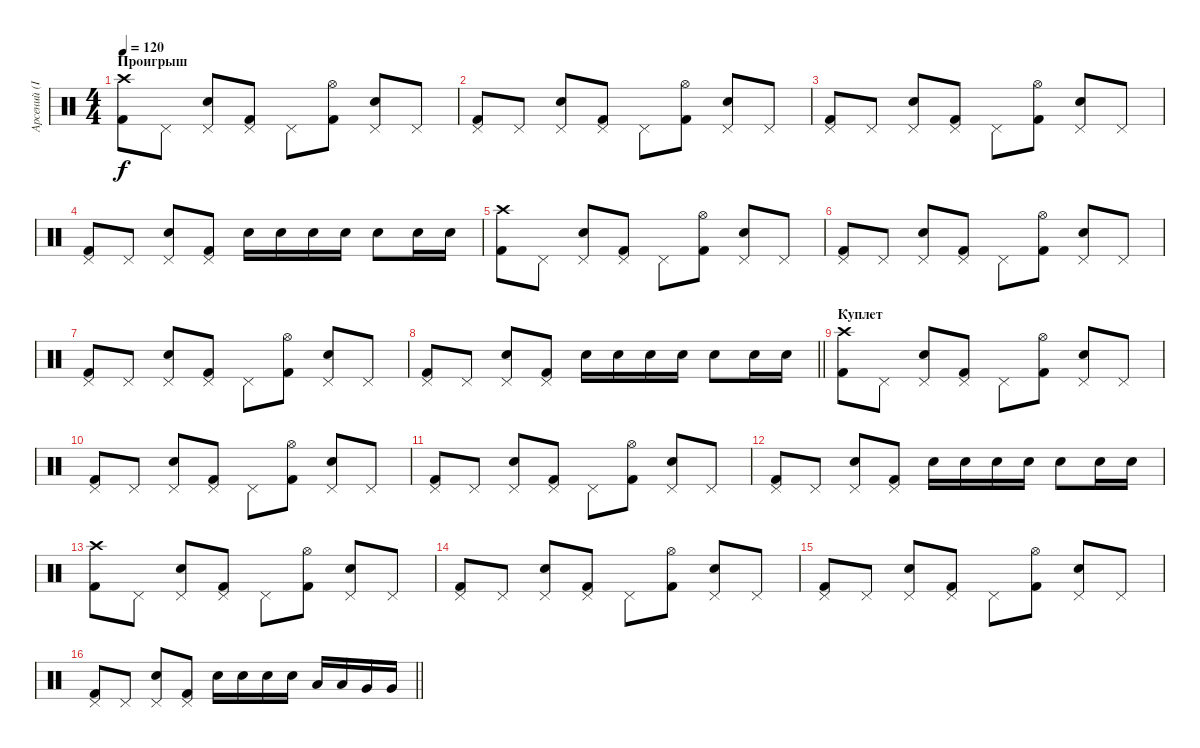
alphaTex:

\track ("Арсений (Idler) Ударные" "Арсений (I") {instrument percussion}
\staff {score}
\articulation defaults
\ts (4 4)
\section ("" "Проигрыш")
\tempo 120
\clef neutral
\ks c
("Crash high (hit)" "Kick (hit) 2").8{dy f} "Pedal Hi-Hat (hit)".8 ("Pedal Hi-Hat (hit)" "Snare (hit) 2").8 ("Pedal Hi-Hat (hit)" "Kick (hit) 2").8 "Pedal Hi-Hat (hit)".8 ("Hi-Hat (open)" "Kick (hit) 2").8 ("Pedal Hi-Hat (hit)" "Snare (hit) 2").8 "Pedal Hi-Hat (hit)".8 |
("Pedal Hi-Hat (hit)" "Kick (hit) 2").8 "Pedal Hi-Hat (hit)".8 ("Pedal Hi-Hat (hit)" "Snare (hit) 2").8 ("Pedal Hi-Hat (hit)" "Kick (hit) 2").8 "Pedal Hi-Hat (hit)".8 ("Hi-Hat (open)" "Kick (hit) 2").8 ("Pedal Hi-Hat (hit)" "Snare (hit) 2").8 "Pedal Hi-Hat (hit)".8 |
("Pedal Hi-Hat (hit)" "Kick (hit) 2").8 "Pedal Hi-Hat (hit)".8 ("Pedal Hi-Hat (hit)" "Snare (hit) 2").8 ("Pedal Hi-Hat (hit)" "Kick (hit) 2").8 "Pedal Hi-Hat (hit)".8 ("Hi-Hat (open)" "Kick (hit) 2").8 ("Pedal Hi-Hat (hit)" "Snare (hit) 2").8 "Pedal Hi-Hat (hit)".8 |
("Pedal Hi-Hat (hit)" "Kick (hit) 2").8 "Pedal Hi-Hat (hit)".8 ("Pedal Hi-Hat (hit)" "Snare (hit) 2").8 ("Pedal Hi-Hat (hit)" "Kick (hit) 2").8 "Snare (hit) 2".16 "Snare (hit) 2".16 "Snare (hit) 2".16 "Snare (hit) 2".16 "Snare (hit) 2".8 "Snare (hit) 2".16 "Snare (hit) 2".16 |
("Crash high (hit)" "Kick (hit) 2").8 "Pedal Hi-Hat (hit)".8 ("Pedal Hi-Hat (hit)" "Snare (hit) 2").8 ("Pedal Hi-Hat (hit)" "Kick (hit) 2").8 "Pedal Hi-Hat (hit)".8 ("Hi-Hat (open)" "Kick (hit) 2").8 ("Pedal Hi-Hat (hit)" "Snare (hit) 2").8 "Pedal Hi-Hat (hit)".8 |
("Pedal Hi-Hat (hit)" "Kick (hit) 2").8 "Pedal Hi-Hat (hit)".8 ("Pedal Hi-Hat (hit)" "Snare (hit) 2").8 ("Pedal Hi-Hat (hit)" "Kick (hit) 2").8 "Pedal Hi-Hat (hit)".8 ("Hi-Hat (open)" "Kick (hit) 2").8 ("Pedal Hi-Hat (hit)" "Snare (hit) 2").8 "Pedal Hi-Hat (hit)".8 |
("Pedal Hi-Hat (hit)" "Kick (hit) 2").8 "Pedal Hi-Hat (hit)".8 ("Pedal Hi-Hat (hit)" "Snare (hit) 2").8 ("Pedal Hi-Hat (hit)" "Kick (hit) 2").8 "Pedal Hi-Hat (hit)".8 ("Hi-Hat (open)" "Kick (hit) 2").8 ("Pedal Hi-Hat (hit)" "Snare (hit) 2").8 "Pedal Hi-Hat (hit)".8 |
\barLineRight lightlight
("Pedal Hi-Hat (hit)" "Kick (hit) 2").8 "Pedal Hi-Hat (hit)".8 ("Pedal Hi-Hat (hit)" "Snare (hit) 2").8 ("Pedal Hi-Hat (hit)" "Kick (hit) 2").8 "Snare (hit) 2".16 "Snare (hit) 2".16 "Snare (hit) 2".16 "Snare (hit) 2".16 "Snare (hit) 2".8 "Snare (hit) 2".16 "Snare (hit) 2".16 |
\section ("" "Куплет")
("Crash high (hit)" "Kick (hit) 2").8 "Pedal Hi-Hat (hit)".8 ("Pedal Hi-Hat (hit)" "Snare (hit) 2").8 ("Pedal Hi-Hat (hit)" "Kick (hit) 2").8 "Pedal Hi-Hat (hit)".8 ("Hi-Hat (open)" "Kick (hit) 2").8 ("Pedal Hi-Hat (hit)" "Snare (hit) 2").8 "Pedal Hi-Hat (hit)".8 |
("Pedal Hi-Hat (hit)" "Kick (hit) 2").8 "Pedal Hi-Hat (hit)".8 ("Pedal Hi-Hat (hit)" "Snare (hit) 2").8 ("Pedal Hi-Hat (hit)" "Kick (hit) 2").8 "Pedal Hi-Hat (hit)".8 ("Hi-Hat (open)" "Kick (hit) 2").8 ("Pedal Hi-Hat (hit)" "Snare (hit) 2").8 "Pedal Hi-Hat (hit)".8 |
("Pedal Hi-Hat (hit)" "Kick (hit) 2").8 "Pedal Hi-Hat (hit)".8 ("Pedal Hi-Hat (hit)" "Snare (hit) 2").8 ("Pedal Hi-Hat (hit)" "Kick (hit) 2").8 "Pedal Hi-Hat (hit)".8 ("Hi-Hat (open)" "Kick (hit) 2").8 ("Pedal Hi-Hat (hit)" "Snare (hit) 2").8 "Pedal Hi-Hat (hit)".8 |
("Pedal Hi-Hat (hit)" "Kick (hit) 2").8 "Pedal Hi-Hat (hit)".8 ("Pedal Hi-Hat (hit)" "Snare (hit) 2").8 ("Pedal Hi-Hat (hit)" "Kick (hit) 2").8 "Snare (hit) 2".16 "Snare (hit) 2".16 "Snare (hit) 2".16 "Snare (hit) 2".16 "Snare (hit) 2".8 "Snare (hit) 2".16 "Snare (hit) 2".16 |
("Crash high (hit)" "Kick (hit) 2").8 "Pedal Hi-Hat (hit)".8 ("Pedal Hi-Hat (hit)" "Snare (hit) 2").8 ("Pedal Hi-Hat (hit)" "Kick (hit) 2").8 "Pedal Hi-Hat (hit)".8 ("Hi-Hat (open)" "Kick (hit) 2").8 ("Pedal Hi-Hat (hit)" "Snare (hit) 2").8 "Pedal Hi-Hat (hit)".8 |
("Pedal Hi-Hat (hit)" "Kick (hit) 2").8 "Pedal Hi-Hat (hit)".8 ("Pedal Hi-Hat (hit)" "Snare (hit) 2").8 ("Pedal Hi-Hat (hit)" "Kick (hit) 2").8 "Pedal Hi-Hat (hit)".8 ("Hi-Hat (open)" "Kick (hit) 2").8 ("Pedal Hi-Hat (hit)" "Snare (hit) 2").8 "Pedal Hi-Hat (hit)".8 |
("Pedal Hi-Hat (hit)" "Kick (hit) 2").8 "Pedal Hi-Hat (hit)".8 ("Pedal Hi-Hat (hit)" "Snare (hit) 2").8 ("Pedal Hi-Hat (hit)" "Kick (hit) 2").8 "Pedal Hi-Hat (hit)".8 ("Hi-Hat (open)" "Kick (hit) 2").8 ("Pedal Hi-Hat (hit)" "Snare (hit) 2").8 "Pedal Hi-Hat (hit)".8 |
\barLineRight lightlight
("Pedal Hi-Hat (hit)" "Kick (hit) 2").8 "Pedal Hi-Hat (hit)".8 ("Pedal Hi-Hat (hit)" "Snare (hit) 2").8 ("Pedal Hi-Hat (hit)" "Kick (hit) 2").8 "Snare (hit) 2".16 "Snare (hit) 2".16 "Snare (hit) 2".16 "Snare (hit) 2".16 "Low Tom (hit)".16 "Low Tom (hit)".16 "Very Low Tom (hit)".16 "Very Low Tom (hit)".16
